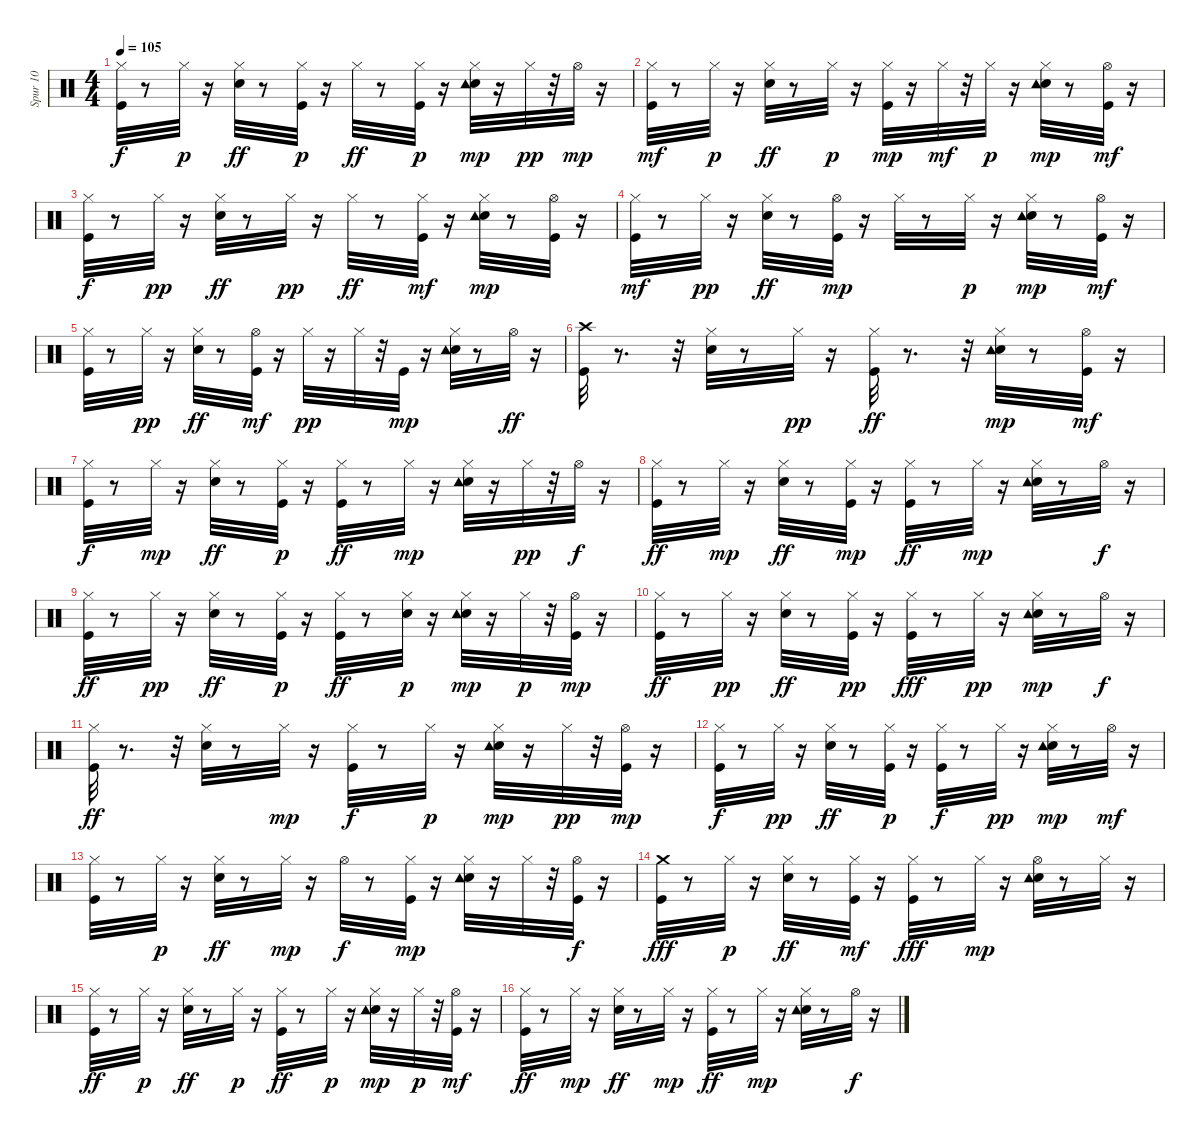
\track ("Spur 10" "Spur 10") {instrument percussion}
\staff {score}
\articulation defaults
\ts (4 4)
\tempo 105
\clef neutral
\ks c
("Kick (hit)" "Hi-Hat (closed)").32{dy f} r.8 "Hi-Hat (closed)".32{dy p} r.16 ("Snare (hit) 2" "Hi-Hat (closed)").32{dy ff} r.8 ("Kick (hit)" "Hi-Hat (closed)").32{dy p} r.16 "Hi-Hat (closed)".32{dy ff} r.8 ("Kick (hit)" "Hi-Hat (closed)").32{dy p} r.16 ("Snare (hit) 2" "Hi-Hat (closed)" "Tambourine (hit)").32{dy mp} r.16 "Hi-Hat (closed)".32{dy pp} r.32 "Hi-Hat (open)".32{dy mp} r.16 |
("Kick (hit)" "Hi-Hat (closed)").32{dy mf} r.8 "Hi-Hat (closed)".32{dy p} r.16 ("Snare (hit) 2" "Hi-Hat (closed)").32{dy ff} r.8 "Hi-Hat (closed)".32{dy p} r.16 ("Kick (hit)" "Hi-Hat (closed)").32{dy mp} r.16 "Hi-Hat (closed)".32{dy mf} r.32 "Hi-Hat (closed)".32{dy p} r.16 ("Snare (hit) 2" "Hi-Hat (closed)" "Tambourine (hit)").32{dy mp} r.8 ("Kick (hit)" "Hi-Hat (open)").32{dy mf} r.16 |
("Kick (hit)" "Hi-Hat (closed)").32{dy f} r.8 "Hi-Hat (closed)".32{dy pp} r.16 ("Snare (hit) 2" "Hi-Hat (closed)").32{dy ff} r.8 "Hi-Hat (closed)".32{dy pp} r.16 "Hi-Hat (closed)".32{dy ff} r.8 ("Kick (hit)" "Hi-Hat (closed)").32{dy mf} r.16 ("Snare (hit) 2" "Hi-Hat (closed)" "Tambourine (hit)").32{dy mp} r.8 ("Kick (hit)" "Hi-Hat (open)").32 r.16 |
("Kick (hit)" "Hi-Hat (closed)").32{dy mf} r.8 "Hi-Hat (closed)".32{dy pp} r.16 ("Snare (hit) 2" "Hi-Hat (closed)").32{dy ff} r.8 ("Kick (hit)" "Hi-Hat (open)").32{dy mp} r.16 "Hi-Hat (closed)".32 r.8 "Hi-Hat (closed)".32{dy p} r.16 ("Snare (hit) 2" "Hi-Hat (closed)" "Tambourine (hit)").32{dy mp} r.8 ("Kick (hit)" "Hi-Hat (open)").32{dy mf} r.16 |
("Kick (hit)" "Hi-Hat (closed)").32 r.8 "Hi-Hat (closed)".32{dy pp} r.16 ("Snare (hit) 2" "Hi-Hat (closed)").32{dy ff} r.8 ("Kick (hit)" "Hi-Hat (open)").32{dy mf} r.16 "Hi-Hat (closed)".32{dy pp} r.16 "Hi-Hat (closed)".32 r.32 "Kick (hit)".32{dy mp} r.16 ("Snare (hit) 2" "Hi-Hat (closed)" "Tambourine (hit)").32 r.8 "Hi-Hat (open)".32{dy ff} r.16 |
("Kick (hit)" "Crash high (hit)").32 r.8{d} r.32 ("Snare (hit) 2" "Hi-Hat (closed)").32 r.8 "Hi-Hat (closed)".32{dy pp} r.16 ("Kick (hit)" "Hi-Hat (closed)").32{dy ff} r.8{d} r.32 ("Snare (hit) 2" "Hi-Hat (closed)" "Tambourine (hit)").32{dy mp} r.8 ("Kick (hit)" "Hi-Hat (open)").32{dy mf} r.16 |
("Kick (hit)" "Hi-Hat (closed)").32{dy f} r.8 "Hi-Hat (closed)".32{dy mp} r.16 ("Snare (hit) 2" "Hi-Hat (closed)").32{dy ff} r.8 ("Kick (hit)" "Hi-Hat (closed)").32{dy p} r.16 ("Kick (hit)" "Hi-Hat (closed)").32{dy ff} r.8 "Hi-Hat (closed)".32{dy mp} r.16 ("Snare (hit) 2" "Hi-Hat (closed)" "Tambourine (hit)").32 r.16 "Hi-Hat (closed)".32{dy pp} r.32 "Hi-Hat (open)".32{dy f} r.16 |
("Kick (hit)" "Hi-Hat (closed)").32{dy ff} r.8 "Hi-Hat (closed)".32{dy mp} r.16 ("Snare (hit) 2" "Hi-Hat (closed)").32{dy ff} r.8 ("Kick (hit)" "Hi-Hat (closed)").32{dy mp} r.16 ("Kick (hit)" "Hi-Hat (closed)").32{dy ff} r.8 "Hi-Hat (closed)".32{dy mp} r.16 ("Snare (hit) 2" "Hi-Hat (closed)" "Tambourine (hit)").32 r.8 "Hi-Hat (open)".32{dy f} r.16 |
("Kick (hit)" "Hi-Hat (closed)").32{dy ff} r.8 "Hi-Hat (closed)".32{dy pp} r.16 ("Snare (hit) 2" "Hi-Hat (closed)").32{dy ff} r.8 ("Kick (hit)" "Hi-Hat (closed)").32{dy p} r.16 ("Kick (hit)" "Hi-Hat (closed)").32{dy ff} r.8 ("Snare (hit) 2" "Hi-Hat (closed)").32{dy p} r.16 ("Snare (hit) 2" "Hi-Hat (closed)" "Tambourine (hit)").32{dy mp} r.16 "Hi-Hat (closed)".32{dy p} r.32 ("Kick (hit)" "Hi-Hat (open)").32{dy mp} r.16 |
("Kick (hit)" "Hi-Hat (closed)").32{dy ff} r.8 "Hi-Hat (closed)".32{dy pp} r.16 ("Snare (hit) 2" "Hi-Hat (closed)").32{dy ff} r.8 ("Kick (hit)" "Hi-Hat (closed)").32{dy pp} r.16 ("Kick (hit)" "Hi-Hat (closed)").32{dy fff} r.8 "Hi-Hat (closed)".32{dy pp} r.16 ("Snare (hit) 2" "Hi-Hat (closed)" "Tambourine (hit)").32{dy mp} r.8 "Hi-Hat (open)".32{dy f} r.16 |
("Kick (hit)" "Hi-Hat (closed)").32{dy ff} r.8{d} r.32 ("Snare (hit) 2" "Hi-Hat (closed)").32 r.8 "Hi-Hat (closed)".32{dy mp} r.16 ("Kick (hit)" "Hi-Hat (closed)").32{dy f} r.8 "Hi-Hat (closed)".32{dy p} r.16 ("Snare (hit) 2" "Hi-Hat (closed)" "Tambourine (hit)").32{dy mp} r.16 "Hi-Hat (closed)".32{dy pp} r.32 ("Kick (hit)" "Hi-Hat (open)").32{dy mp} r.16 |
("Kick (hit)" "Hi-Hat (closed)").32{dy f} r.8 "Hi-Hat (closed)".32{dy pp} r.16 ("Snare (hit) 2" "Hi-Hat (closed)").32{dy ff} r.8 ("Kick (hit)" "Hi-Hat (closed)").32{dy p} r.16 ("Kick (hit)" "Hi-Hat (closed)").32{dy f} r.8 "Hi-Hat (closed)".32{dy pp} r.16 ("Snare (hit) 2" "Hi-Hat (closed)" "Tambourine (hit)").32{dy mp} r.8 "Hi-Hat (open)".32{dy mf} r.16 |
("Kick (hit)" "Hi-Hat (closed)").32 r.8 "Hi-Hat (closed)".32{dy p} r.16 ("Snare (hit) 2" "Hi-Hat (closed)").32{dy ff} r.8 "Hi-Hat (closed)".32{dy mp} r.16 "Hi-Hat (open)".32{dy f} r.8 ("Kick (hit)" "Hi-Hat (closed)").32{dy mp} r.16 ("Snare (hit) 2" "Hi-Hat (closed)" "Tambourine (hit)").32 r.16 "Hi-Hat (closed)".32 r.32 ("Kick (hit)" "Hi-Hat (open)").32{dy f} r.16 |
("Kick (hit)" "Crash medium (hit)").32{dy fff} r.8 "Hi-Hat (closed)".32{dy p} r.16 ("Snare (hit) 2" "Hi-Hat (closed)").32{dy ff} r.8 ("Kick (hit)" "Hi-Hat (closed)").32{dy mf} r.16 ("Kick (hit)" "Hi-Hat (closed)").32{dy fff} r.8 "Hi-Hat (closed)".32{dy mp} r.16 ("Snare (hit) 2" "Hi-Hat (open)" "Tambourine (hit)").32 r.8 "Hi-Hat (closed)".32 r.16 |
("Kick (hit)" "Hi-Hat (closed)").32{dy ff} r.8 "Hi-Hat (closed)".32{dy p} r.16 ("Snare (hit) 2" "Hi-Hat (closed)").32{dy ff} r.8 "Hi-Hat (closed)".32{dy p} r.16 ("Kick (hit)" "Hi-Hat (closed)").32{dy ff} r.8 "Hi-Hat (closed)".32{dy p} r.16 ("Snare (hit) 2" "Hi-Hat (closed)" "Tambourine (hit)").32{dy mp} r.16 "Hi-Hat (closed)".32{dy p} r.32 ("Kick (hit)" "Hi-Hat (open)").32{dy mf} r.16 |
("Kick (hit)" "Hi-Hat (closed)").32{dy ff} r.8 "Hi-Hat (closed)".32{dy mp} r.16 ("Snare (hit) 2" "Hi-Hat (closed)").32{dy ff} r.8 "Hi-Hat (closed)".32{dy mp} r.16 ("Kick (hit)" "Hi-Hat (closed)").32{dy ff} r.8 "Hi-Hat (closed)".32{dy mp} r.16 ("Snare (hit) 2" "Hi-Hat (closed)" "Tambourine (hit)").32 r.8 "Hi-Hat (open)".32{dy f} r.16
